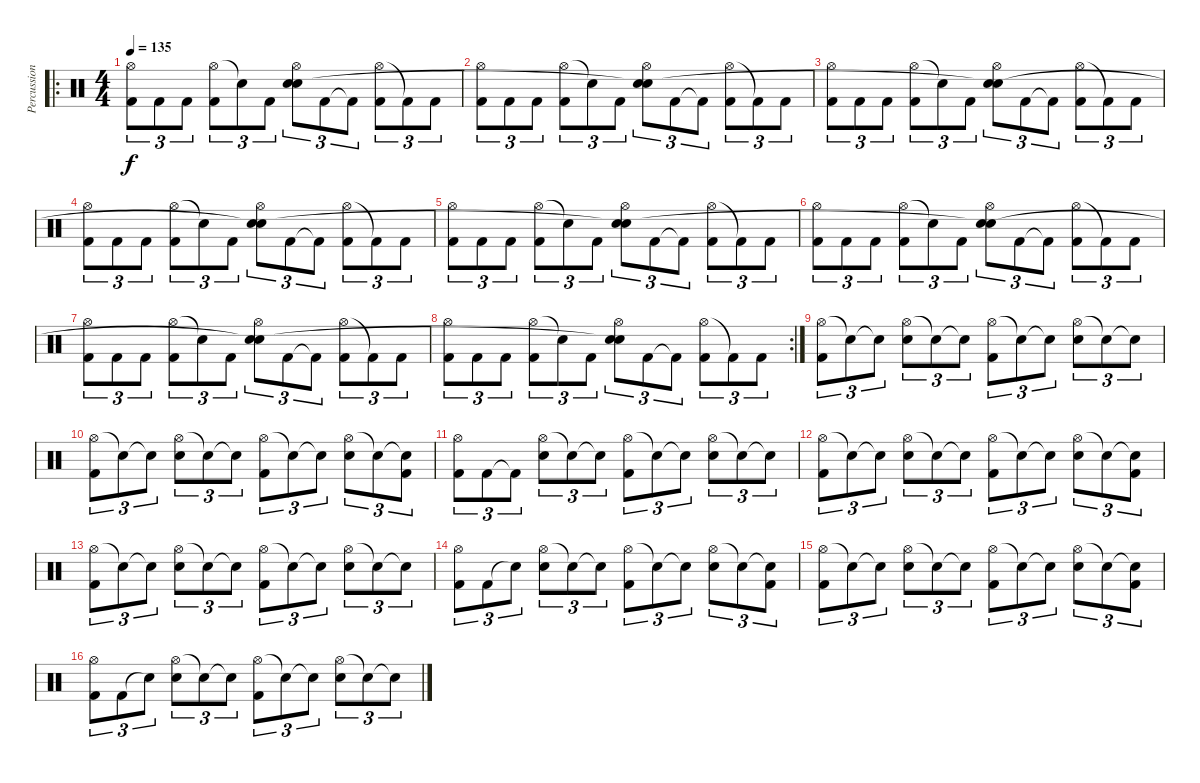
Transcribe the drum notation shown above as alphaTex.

\track ("Percussions" "Percussion") {instrument percussion}
\staff {score}
\articulation defaults
\ro
\ts (4 4)
\tempo 135
\clef neutral
\ks c
("Hi-Hat (open)" "Kick (hit) 2").8{tu (3 2) dy f} "Kick (hit) 2".8{tu (3 2)} "Kick (hit) 2".8{tu (3 2)} ("Hi-Hat (open)" "Kick (hit) 2").8{tu (3 2)} "Snare (hit)"{t}.8{tu (3 2)} "Kick (hit) 2".8{tu (3 2)} ("Hi-Hat (open)" "Snare (hit) 2" "Snare (hit)").8{tu (3 2)} "Kick (hit) 2".8{tu (3 2)} "Kick (hit) 2"{t}.8{tu (3 2)} ("Hi-Hat (open)" "Kick (hit) 2").8{tu (3 2)} "Kick (hit) 2"{t}.8{tu (3 2)} "Kick (hit) 2".8{tu (3 2)} |
("Hi-Hat (open)" "Kick (hit) 2").8{tu (3 2)} "Kick (hit) 2".8{tu (3 2)} "Kick (hit) 2".8{tu (3 2)} ("Hi-Hat (open)" "Kick (hit) 2").8{tu (3 2)} "Snare (hit)"{t}.8{tu (3 2)} "Kick (hit) 2".8{tu (3 2)} ("Hi-Hat (open)" "Snare (hit) 2" "Snare (hit)"{t}).8{tu (3 2)} "Kick (hit) 2".8{tu (3 2)} "Kick (hit) 2"{t}.8{tu (3 2)} ("Hi-Hat (open)" "Kick (hit) 2").8{tu (3 2)} "Kick (hit) 2"{t}.8{tu (3 2)} "Kick (hit) 2".8{tu (3 2)} |
("Hi-Hat (open)" "Kick (hit) 2").8{tu (3 2)} "Kick (hit) 2".8{tu (3 2)} "Kick (hit) 2".8{tu (3 2)} ("Hi-Hat (open)" "Kick (hit) 2").8{tu (3 2)} "Snare (hit)"{t}.8{tu (3 2)} "Kick (hit) 2".8{tu (3 2)} ("Hi-Hat (open)" "Snare (hit) 2" "Snare (hit)"{t}).8{tu (3 2)} "Kick (hit) 2".8{tu (3 2)} "Kick (hit) 2"{t}.8{tu (3 2)} ("Hi-Hat (open)" "Kick (hit) 2").8{tu (3 2)} "Kick (hit) 2"{t}.8{tu (3 2)} "Kick (hit) 2".8{tu (3 2)} |
("Hi-Hat (open)" "Kick (hit) 2").8{tu (3 2)} "Kick (hit) 2".8{tu (3 2)} "Kick (hit) 2".8{tu (3 2)} ("Hi-Hat (open)" "Kick (hit) 2").8{tu (3 2)} "Snare (hit)"{t}.8{tu (3 2)} "Kick (hit) 2".8{tu (3 2)} ("Hi-Hat (open)" "Snare (hit) 2" "Snare (hit)"{t}).8{tu (3 2)} "Kick (hit) 2".8{tu (3 2)} "Kick (hit) 2"{t}.8{tu (3 2)} ("Hi-Hat (open)" "Kick (hit) 2").8{tu (3 2)} "Kick (hit) 2"{t}.8{tu (3 2)} "Kick (hit) 2".8{tu (3 2)} |
("Hi-Hat (open)" "Kick (hit) 2").8{tu (3 2)} "Kick (hit) 2".8{tu (3 2)} "Kick (hit) 2".8{tu (3 2)} ("Hi-Hat (open)" "Kick (hit) 2").8{tu (3 2)} "Snare (hit)"{t}.8{tu (3 2)} "Kick (hit) 2".8{tu (3 2)} ("Hi-Hat (open)" "Snare (hit) 2" "Snare (hit)"{t}).8{tu (3 2)} "Kick (hit) 2".8{tu (3 2)} "Kick (hit) 2"{t}.8{tu (3 2)} ("Hi-Hat (open)" "Kick (hit) 2").8{tu (3 2)} "Kick (hit) 2"{t}.8{tu (3 2)} "Kick (hit) 2".8{tu (3 2)} |
("Hi-Hat (open)" "Kick (hit) 2").8{tu (3 2)} "Kick (hit) 2".8{tu (3 2)} "Kick (hit) 2".8{tu (3 2)} ("Hi-Hat (open)" "Kick (hit) 2").8{tu (3 2)} "Snare (hit)"{t}.8{tu (3 2)} "Kick (hit) 2".8{tu (3 2)} ("Hi-Hat (open)" "Snare (hit) 2" "Snare (hit)"{t}).8{tu (3 2)} "Kick (hit) 2".8{tu (3 2)} "Kick (hit) 2"{t}.8{tu (3 2)} ("Hi-Hat (open)" "Kick (hit) 2").8{tu (3 2)} "Kick (hit) 2"{t}.8{tu (3 2)} "Kick (hit) 2".8{tu (3 2)} |
("Hi-Hat (open)" "Kick (hit) 2").8{tu (3 2)} "Kick (hit) 2".8{tu (3 2)} "Kick (hit) 2".8{tu (3 2)} ("Hi-Hat (open)" "Kick (hit) 2").8{tu (3 2)} "Snare (hit)"{t}.8{tu (3 2)} "Kick (hit) 2".8{tu (3 2)} ("Hi-Hat (open)" "Snare (hit) 2" "Snare (hit)"{t}).8{tu (3 2)} "Kick (hit) 2".8{tu (3 2)} "Kick (hit) 2"{t}.8{tu (3 2)} ("Hi-Hat (open)" "Kick (hit) 2").8{tu (3 2)} "Kick (hit) 2"{t}.8{tu (3 2)} "Kick (hit) 2".8{tu (3 2)} |
\rc 2
("Hi-Hat (open)" "Kick (hit) 2").8{tu (3 2)} "Kick (hit) 2".8{tu (3 2)} "Kick (hit) 2".8{tu (3 2)} ("Hi-Hat (open)" "Kick (hit) 2").8{tu (3 2)} "Snare (hit)"{t}.8{tu (3 2)} "Kick (hit) 2".8{tu (3 2)} ("Hi-Hat (open)" "Snare (hit) 2" "Snare (hit)"{t}).8{tu (3 2)} "Kick (hit) 2".8{tu (3 2)} "Kick (hit) 2"{t}.8{tu (3 2)} ("Hi-Hat (open)" "Kick (hit) 2").8{tu (3 2)} "Kick (hit) 2"{t}.8{tu (3 2)} "Kick (hit) 2".8{tu (3 2)} |
("Hi-Hat (open)" "Kick (hit) 2").8{tu (3 2)} "Snare (hit)"{t}.8{tu (3 2)} "Snare (hit)"{t}.8{tu (3 2)} ("Hi-Hat (open)" "Snare (hit) 2").8{tu (3 2)} "Snare (hit)"{t}.8{tu (3 2)} "Snare (hit)"{t}.8{tu (3 2)} ("Hi-Hat (open)" "Kick (hit) 2").8{tu (3 2)} "Snare (hit)"{t}.8{tu (3 2)} "Snare (hit)"{t}.8{tu (3 2)} ("Hi-Hat (open)" "Snare (hit) 2").8{tu (3 2)} "Snare (hit)"{t}.8{tu (3 2)} "Snare (hit)"{t}.8{tu (3 2)} |
("Hi-Hat (open)" "Kick (hit) 2").8{tu (3 2)} "Snare (hit)"{t}.8{tu (3 2)} "Snare (hit)"{t}.8{tu (3 2)} ("Hi-Hat (open)" "Snare (hit) 2").8{tu (3 2)} "Snare (hit)"{t}.8{tu (3 2)} "Snare (hit)"{t}.8{tu (3 2)} ("Hi-Hat (open)" "Kick (hit) 2").8{tu (3 2)} "Snare (hit)"{t}.8{tu (3 2)} "Snare (hit)"{t}.8{tu (3 2)} ("Hi-Hat (open)" "Snare (hit) 2").8{tu (3 2)} "Snare (hit)"{t}.8{tu (3 2)} ("Snare (hit)"{t} "Kick (hit) 2").8{tu (3 2)} |
("Hi-Hat (open)" "Kick (hit) 2").8{tu (3 2)} "Kick (hit) 2".8{tu (3 2)} "Kick (hit) 2"{t}.8{tu (3 2)} ("Hi-Hat (open)" "Snare (hit) 2").8{tu (3 2)} "Snare (hit)"{t}.8{tu (3 2)} "Snare (hit)"{t}.8{tu (3 2)} ("Hi-Hat (open)" "Kick (hit) 2").8{tu (3 2)} "Snare (hit)"{t}.8{tu (3 2)} "Snare (hit)"{t}.8{tu (3 2)} ("Hi-Hat (open)" "Snare (hit) 2").8{tu (3 2)} "Snare (hit)"{t}.8{tu (3 2)} "Snare (hit)"{t}.8{tu (3 2)} |
("Hi-Hat (open)" "Kick (hit) 2").8{tu (3 2)} "Snare (hit)"{t}.8{tu (3 2)} "Snare (hit)"{t}.8{tu (3 2)} ("Hi-Hat (open)" "Snare (hit) 2").8{tu (3 2)} "Snare (hit)"{t}.8{tu (3 2)} "Snare (hit)"{t}.8{tu (3 2)} ("Hi-Hat (open)" "Kick (hit) 2").8{tu (3 2)} "Snare (hit)"{t}.8{tu (3 2)} "Snare (hit)"{t}.8{tu (3 2)} ("Hi-Hat (open)" "Snare (hit) 2").8{tu (3 2)} "Snare (hit)"{t}.8{tu (3 2)} ("Snare (hit)"{t} "Kick (hit) 2").8{tu (3 2)} |
("Hi-Hat (open)" "Kick (hit) 2").8{tu (3 2)} "Snare (hit)"{t}.8{tu (3 2)} "Snare (hit)"{t}.8{tu (3 2)} ("Hi-Hat (open)" "Snare (hit) 2").8{tu (3 2)} "Snare (hit)"{t}.8{tu (3 2)} "Snare (hit)"{t}.8{tu (3 2)} ("Hi-Hat (open)" "Kick (hit) 2").8{tu (3 2)} "Snare (hit)"{t}.8{tu (3 2)} "Snare (hit)"{t}.8{tu (3 2)} ("Hi-Hat (open)" "Snare (hit) 2").8{tu (3 2)} "Snare (hit)"{t}.8{tu (3 2)} "Snare (hit)"{t}.8{tu (3 2)} |
("Hi-Hat (open)" "Kick (hit) 2").8{tu (3 2)} "Kick (hit) 2".8{tu (3 2)} "Snare (hit)"{t}.8{tu (3 2)} ("Hi-Hat (open)" "Snare (hit) 2").8{tu (3 2)} "Snare (hit)"{t}.8{tu (3 2)} "Snare (hit)"{t}.8{tu (3 2)} ("Hi-Hat (open)" "Kick (hit) 2").8{tu (3 2)} "Snare (hit)"{t}.8{tu (3 2)} "Snare (hit)"{t}.8{tu (3 2)} ("Hi-Hat (open)" "Snare (hit) 2").8{tu (3 2)} "Snare (hit)"{t}.8{tu (3 2)} ("Snare (hit)"{t} "Kick (hit) 2").8{tu (3 2)} |
("Hi-Hat (open)" "Kick (hit) 2").8{tu (3 2)} "Snare (hit)"{t}.8{tu (3 2)} "Snare (hit)"{t}.8{tu (3 2)} ("Hi-Hat (open)" "Snare (hit) 2").8{tu (3 2)} "Snare (hit)"{t}.8{tu (3 2)} "Snare (hit)"{t}.8{tu (3 2)} ("Hi-Hat (open)" "Kick (hit) 2").8{tu (3 2)} "Snare (hit)"{t}.8{tu (3 2)} "Snare (hit)"{t}.8{tu (3 2)} ("Hi-Hat (open)" "Snare (hit) 2").8{tu (3 2)} "Snare (hit)"{t}.8{tu (3 2)} ("Snare (hit)"{t} "Kick (hit) 2").8{tu (3 2)} |
("Hi-Hat (open)" "Kick (hit) 2").8{tu (3 2)} "Kick (hit) 2".8{tu (3 2)} "Snare (hit)"{t}.8{tu (3 2)} ("Hi-Hat (open)" "Snare (hit) 2").8{tu (3 2)} "Snare (hit)"{t}.8{tu (3 2)} "Snare (hit)"{t}.8{tu (3 2)} ("Hi-Hat (open)" "Kick (hit) 2").8{tu (3 2)} "Snare (hit)"{t}.8{tu (3 2)} "Snare (hit)"{t}.8{tu (3 2)} ("Hi-Hat (open)" "Snare (hit) 2").8{tu (3 2)} "Snare (hit)"{t}.8{tu (3 2)} "Snare (hit)"{t}.8{tu (3 2)}
